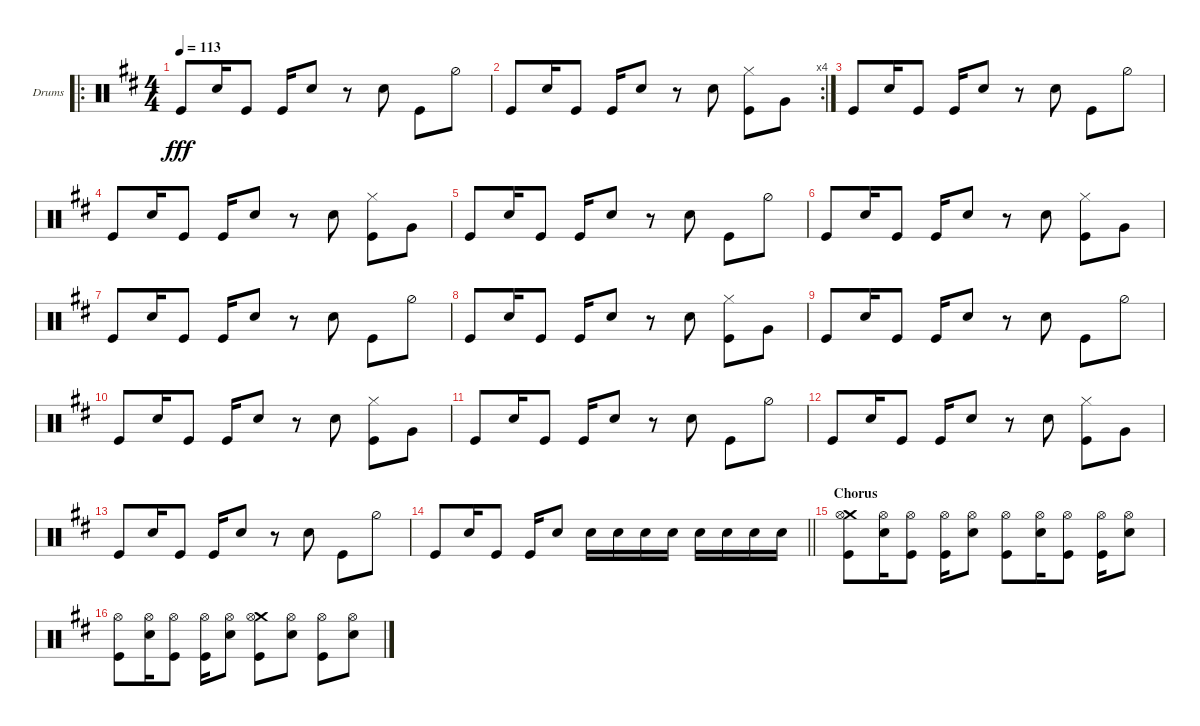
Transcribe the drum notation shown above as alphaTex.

\bracketExtendMode groupsimilarinstruments
\firstSystemTrackNameOrientation horizontal
\otherSystemsTrackNameOrientation horizontal
\track ("Drumkit" "Drums") {instrument percussion}
\staff {score}
\articulation defaults
\ro
\ts (4 4)
\beaming (8 2 2 2 2)
\tempo 113
\clef neutral
\ks d "Kick (hit)".8{dy fff} "Snare (hit) 2".16 "Kick (hit)".8 "Kick (hit)".16 "Snare (hit) 2".8
r.8 "Snare (hit) 2".8 "Kick (hit)".8 "Hi-Hat (half)".8 |
\rc 4 "Kick (hit)".8 "Snare (hit) 2".16 "Kick (hit)".8 "Kick (hit)".16 "Snare (hit) 2".8
r.8 "Snare (hit) 2".8 ("Kick (hit)" "Hi-Hat (closed)").8 "Very Low Tom (hit)".8 |
"Kick (hit)".8 "Snare (hit) 2".16 "Kick (hit)".8 "Kick (hit)".16 "Snare (hit) 2".8 r.8 "Snare (hit) 2".8 "Kick (hit)".8 "Hi-Hat (half)".8 |
"Kick (hit)".8 "Snare (hit) 2".16 "Kick (hit)".8 "Kick (hit)".16 "Snare (hit) 2".8 r.8 "Snare (hit) 2".8 ("Kick (hit)" "Hi-Hat (closed)").8 "Very Low Tom (hit)".8 |
"Kick (hit)".8 "Snare (hit) 2".16 "Kick (hit)".8 "Kick (hit)".16 "Snare (hit) 2".8 r.8 "Snare (hit) 2".8 "Kick (hit)".8 "Hi-Hat (half)".8 |
"Kick (hit)".8 "Snare (hit) 2".16 "Kick (hit)".8 "Kick (hit)".16 "Snare (hit) 2".8 r.8 "Snare (hit) 2".8 ("Kick (hit)" "Hi-Hat (closed)").8 "Very Low Tom (hit)".8 |
"Kick (hit)".8 "Snare (hit) 2".16 "Kick (hit)".8 "Kick (hit)".16 "Snare (hit) 2".8 r.8 "Snare (hit) 2".8 "Kick (hit)".8 "Hi-Hat (half)".8 |
"Kick (hit)".8 "Snare (hit) 2".16 "Kick (hit)".8 "Kick (hit)".16 "Snare (hit) 2".8 r.8 "Snare (hit) 2".8 ("Kick (hit)" "Hi-Hat (closed)").8 "Very Low Tom (hit)".8 |
"Kick (hit)".8 "Snare (hit) 2".16 "Kick (hit)".8 "Kick (hit)".16 "Snare (hit) 2".8 r.8 "Snare (hit) 2".8 "Kick (hit)".8 "Hi-Hat (half)".8 |
"Kick (hit)".8 "Snare (hit) 2".16 "Kick (hit)".8 "Kick (hit)".16 "Snare (hit) 2".8 r.8 "Snare (hit) 2".8 ("Kick (hit)" "Hi-Hat (closed)").8 "Very Low Tom (hit)".8 |
"Kick (hit)".8 "Snare (hit) 2".16 "Kick (hit)".8 "Kick (hit)".16 "Snare (hit) 2".8 r.8 "Snare (hit) 2".8 "Kick (hit)".8 "Hi-Hat (half)".8 |
"Kick (hit)".8 "Snare (hit) 2".16 "Kick (hit)".8 "Kick (hit)".16 "Snare (hit) 2".8 r.8 "Snare (hit) 2".8 ("Kick (hit)" "Hi-Hat (closed)").8 "Very Low Tom (hit)".8 |
"Kick (hit)".8 "Snare (hit) 2".16 "Kick (hit)".8 "Kick (hit)".16 "Snare (hit) 2".8 r.8 "Snare (hit) 2".8 "Kick (hit)".8 "Hi-Hat (half)".8 |
\barLineRight lightlight "Kick (hit)".8 "Snare (hit) 2".16 "Kick (hit)".8 "Kick (hit)".16 "Snare (hit) 2".8 "Snare (hit) 2".16 "Snare (hit) 2".16 "Snare (hit) 2".16 "Snare (hit) 2".16 "Snare (hit) 2".16 "Snare (hit) 2".16 "Snare (hit) 2".16 "Snare (hit) 2".16
|
\section ("" "Chorus")
("Crash medium (hit)" "Hi-Hat (open)" "Kick (hit)").8 ("Hi-Hat (open)" "Snare (hit) 2").16 ("Hi-Hat (open)" "Kick (hit)").8 ("Hi-Hat (open)" "Kick (hit)").16 ("Hi-Hat (open)" "Snare (hit) 2").8 ("Hi-Hat (open)" "Kick (hit)").8 ("Hi-Hat (open)" "Snare (hit) 2").16 ("Hi-Hat (open)" "Kick (hit)").8 ("Hi-Hat (open)" "Kick (hit)").16 ("Hi-Hat (open)" "Snare (hit) 2").8 |
("Hi-Hat (open)" "Kick (hit)").8 ("Hi-Hat (open)" "Snare (hit) 2").16 ("Hi-Hat (open)" "Kick (hit)").8 ("Hi-Hat (open)" "Kick (hit)").16 ("Hi-Hat (open)" "Snare (hit) 2").8 ("Crash medium (hit)" "Hi-Hat (open)" "Kick (hit)").8 ("Hi-Hat (open)" "Snare (hit) 2").8 ("Hi-Hat (open)" "Kick (hit)").8 ("Hi-Hat (open)" "Snare (hit) 2").8
